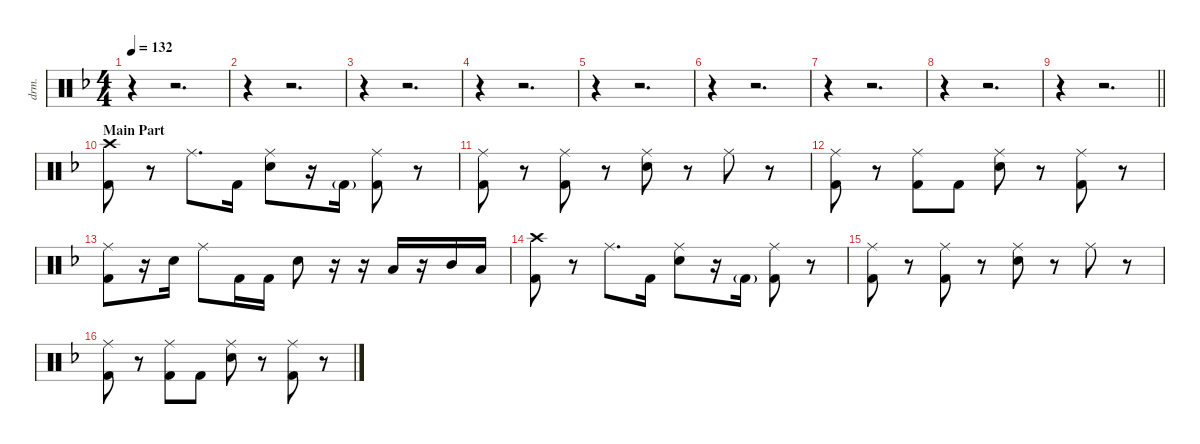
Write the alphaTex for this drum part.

\defaultSystemsLayout 4
\hideDynamics
\bracketExtendMode nobrackets
\otherSystemsTrackNameOrientation horizontal
\track ("Drums" "drm.") {instrument percussion}
\staff {score}
\articulation defaults
\ts (4 4)
\tempo 132
\clef neutral
\ks dminor
r.4{dy f} r.2{d} |
r.4 r.2{d} |
r.4 r.2{d} |
r.4 r.2{d} |
r.4 r.2{d} |
r.4 r.2{d} |
r.4 r.2{d} |
r.4 r.2{d} |
\barLineRight lightlight
r.4 r.2{d} |
\section ("" "Main Part")
("Crash high (hit)"{acc forcenatural} "Kick (hit) 2"{acc forcenatural}).8 r.8 "Ride (middle)"{acc forcenatural}.8{d} "Kick (hit) 2"{acc forcenatural}.16 ("Ride (middle)"{acc forcenatural} "Snare (hit) 2"{acc forcenatural}).8 r.16 "Kick (hit) 2"{g acc forcenatural}.16{dy mf} ("Ride (middle)"{acc forcenatural} "Kick (hit) 2"{acc forcenatural}).8{dy f} r.8 |
("Ride (middle)"{acc forcenatural} "Kick (hit) 2"{acc forcenatural}).8 r.8 ("Ride (middle)"{acc forcenatural} "Kick (hit) 2"{acc forcenatural}).8 r.8 ("Ride (middle)"{acc forcenatural} "Snare (hit) 2"{acc forcenatural}).8 r.8 "Ride (middle)"{acc forcenatural}.8 r.8 |
("Ride (middle)"{acc forcenatural} "Kick (hit) 2"{acc forcenatural}).8 r.8 ("Ride (middle)"{acc forcenatural} "Kick (hit) 2"{acc forcenatural}).8 "Kick (hit) 2"{acc forcenatural}.8 ("Ride (middle)"{acc forcenatural} "Snare (hit) 2"{acc forcenatural}).8 r.8 ("Ride (middle)"{acc forcenatural} "Kick (hit) 2"{acc forcenatural}).8 r.8 |
("Ride (middle)"{acc forcenatural} "Kick (hit) 2"{acc forcenatural}).8 r.16 "Snare (hit) 2"{acc forcenatural}.16 "Ride (middle)"{acc forcenatural}.8 "Kick (hit) 2"{acc forcenatural}.16 "Kick (hit) 2"{acc forcenatural}.16 "Snare (hit) 2"{acc forcenatural}.8 r.16 r.16 "Low Tom (hit)"{acc forcenatural}.16 r.16 "Mid Tom (hit)"{acc forcenatural}.16 "Low Tom (hit)"{acc forcenatural}.16 |
("Crash high (hit)"{acc forcenatural} "Kick (hit) 2"{acc forcenatural}).8 r.8 "Ride (middle)"{acc forcenatural}.8{d} "Kick (hit) 2"{acc forcenatural}.16 ("Ride (middle)"{acc forcenatural} "Snare (hit) 2"{acc forcenatural}).8 r.16 "Kick (hit) 2"{g acc forcenatural}.16{dy mf} ("Ride (middle)"{acc forcenatural} "Kick (hit) 2"{acc forcenatural}).8{dy f} r.8 |
("Ride (middle)"{acc forcenatural} "Kick (hit) 2"{acc forcenatural}).8 r.8 ("Ride (middle)"{acc forcenatural} "Kick (hit) 2"{acc forcenatural}).8 r.8 ("Ride (middle)"{acc forcenatural} "Snare (hit) 2"{acc forcenatural}).8 r.8 "Ride (middle)"{acc forcenatural}.8 r.8 |
("Ride (middle)"{acc forcenatural} "Kick (hit) 2"{acc forcenatural}).8 r.8 ("Ride (middle)"{acc forcenatural} "Kick (hit) 2"{acc forcenatural}).8 "Kick (hit) 2"{acc forcenatural}.8 ("Ride (middle)"{acc forcenatural} "Snare (hit) 2"{acc forcenatural}).8 r.8 ("Ride (middle)"{acc forcenatural} "Kick (hit) 2"{acc forcenatural}).8 r.8
